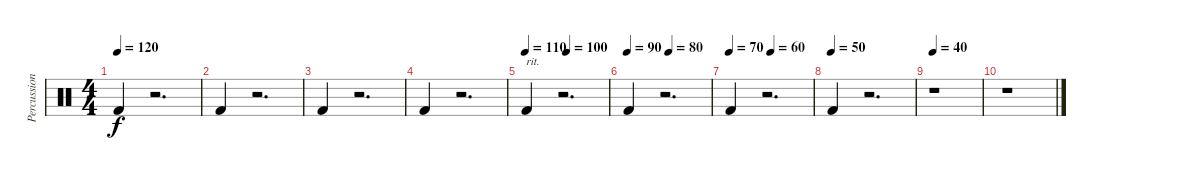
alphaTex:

\track ("Percussion" "Percussion") {instrument percussion}
\staff {score}
\articulation defaults
\ts (4 4)
\tempo 120
\clef neutral
\ks c "Kick (hit) 2".4{dy f}
r.2{d} |
"Kick (hit) 2".4 r.2{d} |
"Kick (hit) 2".4 r.2{d} |
"Kick (hit) 2".4 r.2{d} |
\tempo 110
\tempo (100 0.5)
"Kick (hit) 2".4{txt "rit."} r.2{d} |
\tempo 90
\tempo (80 0.5)
"Kick (hit) 2".4 r.2{d} |
\tempo 70
\tempo (60 0.5)
"Kick (hit) 2".4 r.2{d} |
\tempo (50)
"Kick (hit) 2".4 r.2{d} |
\tempo 40
r.1 |
r.1
